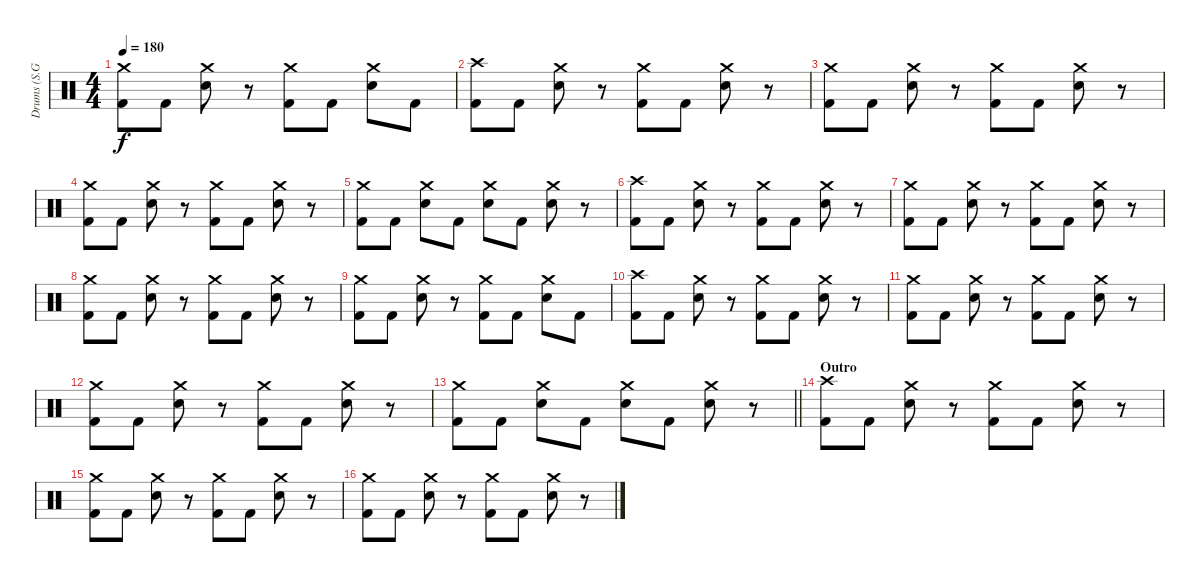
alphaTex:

\track ("Drums (S.G. Yim)" "Drums (S.G") {instrument percussion}
\staff {score}
\articulation defaults
\ts (4 4)
\tempo 180
\clef neutral
\ks c
("Crash medium (hit)" "Kick (hit) 2").8{dy f} "Kick (hit) 2".8 ("Crash medium (hit)" "Snare (hit) 2").8 r.8 ("Crash medium (hit)" "Kick (hit) 2").8 "Kick (hit) 2".8 ("Crash medium (hit)" "Snare (hit) 2").8 "Kick (hit) 2".8 |
("Crash high (hit)" "Kick (hit) 2").8 "Kick (hit) 2".8 ("Crash medium (hit)" "Snare (hit) 2").8 r.8 ("Crash medium (hit)" "Kick (hit) 2").8 "Kick (hit) 2".8 ("Crash medium (hit)" "Snare (hit) 2").8 r.8 |
("Crash medium (hit)" "Kick (hit) 2").8 "Kick (hit) 2".8 ("Crash medium (hit)" "Snare (hit) 2").8 r.8 ("Crash medium (hit)" "Kick (hit) 2").8 "Kick (hit) 2".8 ("Crash medium (hit)" "Snare (hit) 2").8 r.8 |
("Crash medium (hit)" "Kick (hit) 2").8 "Kick (hit) 2".8 ("Crash medium (hit)" "Snare (hit) 2").8 r.8 ("Crash medium (hit)" "Kick (hit) 2").8 "Kick (hit) 2".8 ("Crash medium (hit)" "Snare (hit) 2").8 r.8 |
("Crash medium (hit)" "Kick (hit) 2").8 "Kick (hit) 2".8 ("Crash medium (hit)" "Snare (hit) 2").8 "Kick (hit) 2".8 ("Crash medium (hit)" "Snare (hit) 2").8 "Kick (hit) 2".8 ("Crash medium (hit)" "Snare (hit) 2").8 r.8 |
("Crash high (hit)" "Kick (hit) 2").8 "Kick (hit) 2".8 ("Crash medium (hit)" "Snare (hit) 2").8 r.8 ("Crash medium (hit)" "Kick (hit) 2").8 "Kick (hit) 2".8 ("Crash medium (hit)" "Snare (hit) 2").8 r.8 |
("Crash medium (hit)" "Kick (hit) 2").8 "Kick (hit) 2".8 ("Crash medium (hit)" "Snare (hit) 2").8 r.8 ("Crash medium (hit)" "Kick (hit) 2").8 "Kick (hit) 2".8 ("Crash medium (hit)" "Snare (hit) 2").8 r.8 |
("Crash medium (hit)" "Kick (hit) 2").8 "Kick (hit) 2".8 ("Crash medium (hit)" "Snare (hit) 2").8 r.8 ("Crash medium (hit)" "Kick (hit) 2").8 "Kick (hit) 2".8 ("Crash medium (hit)" "Snare (hit) 2").8 r.8 |
("Crash medium (hit)" "Kick (hit) 2").8 "Kick (hit) 2".8 ("Crash medium (hit)" "Snare (hit) 2").8 r.8 ("Crash medium (hit)" "Kick (hit) 2").8 "Kick (hit) 2".8 ("Crash medium (hit)" "Snare (hit) 2").8 "Kick (hit) 2".8 |
("Crash high (hit)" "Kick (hit) 2").8 "Kick (hit) 2".8 ("Crash medium (hit)" "Snare (hit) 2").8 r.8 ("Crash medium (hit)" "Kick (hit) 2").8 "Kick (hit) 2".8 ("Crash medium (hit)" "Snare (hit) 2").8 r.8 |
("Crash medium (hit)" "Kick (hit) 2").8 "Kick (hit) 2".8 ("Crash medium (hit)" "Snare (hit) 2").8 r.8 ("Crash medium (hit)" "Kick (hit) 2").8 "Kick (hit) 2".8 ("Crash medium (hit)" "Snare (hit) 2").8 r.8 |
("Crash medium (hit)" "Kick (hit) 2").8 "Kick (hit) 2".8 ("Crash medium (hit)" "Snare (hit) 2").8 r.8 ("Crash medium (hit)" "Kick (hit) 2").8 "Kick (hit) 2".8 ("Crash medium (hit)" "Snare (hit) 2").8 r.8 |
\barLineRight lightlight
("Crash medium (hit)" "Kick (hit) 2").8 "Kick (hit) 2".8 ("Crash medium (hit)" "Snare (hit) 2").8 "Kick (hit) 2".8 ("Crash medium (hit)" "Snare (hit) 2").8 "Kick (hit) 2".8 ("Crash medium (hit)" "Snare (hit) 2").8 r.8 |
\section ("" "Outro")
("Crash high (hit)" "Kick (hit) 2").8 "Kick (hit) 2".8 ("Crash medium (hit)" "Snare (hit) 2").8 r.8 ("Crash medium (hit)" "Kick (hit) 2").8 "Kick (hit) 2".8 ("Crash medium (hit)" "Snare (hit) 2").8 r.8 |
("Crash medium (hit)" "Kick (hit) 2").8 "Kick (hit) 2".8 ("Crash medium (hit)" "Snare (hit) 2").8 r.8 ("Crash medium (hit)" "Kick (hit) 2").8 "Kick (hit) 2".8 ("Crash medium (hit)" "Snare (hit) 2").8 r.8 |
("Crash medium (hit)" "Kick (hit) 2").8 "Kick (hit) 2".8 ("Crash medium (hit)" "Snare (hit) 2").8 r.8 ("Crash medium (hit)" "Kick (hit) 2").8 "Kick (hit) 2".8 ("Crash medium (hit)" "Snare (hit) 2").8 r.8
